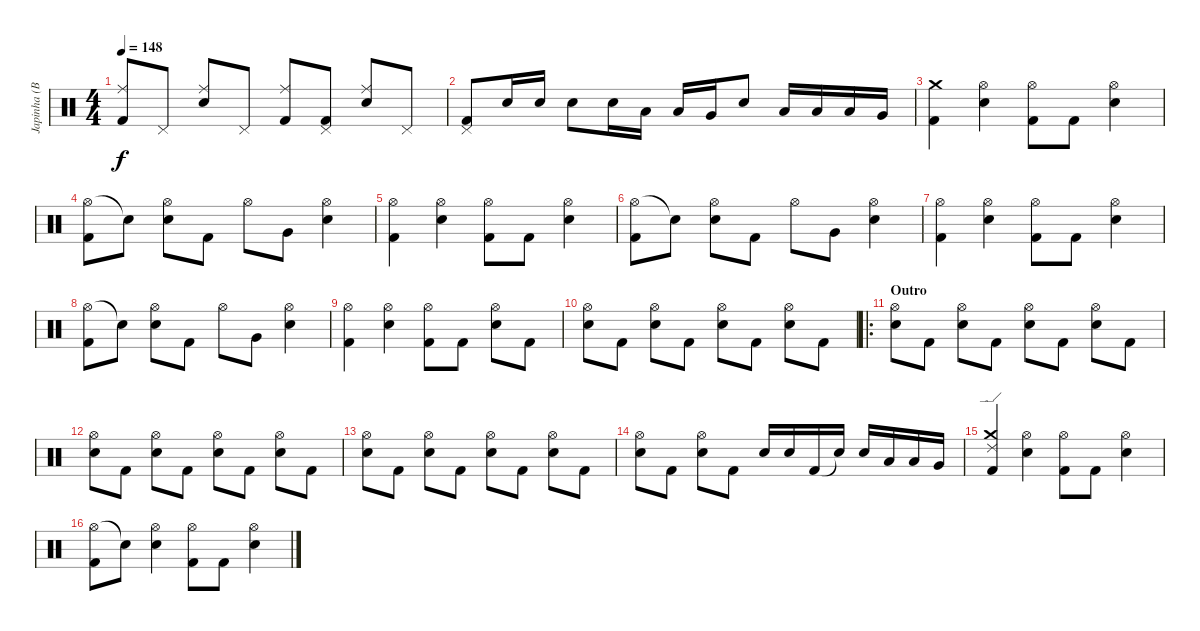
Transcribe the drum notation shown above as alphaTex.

\track ("Japinha (Bateria)" "Japinha (B") {instrument percussion}
\staff {score}
\articulation defaults
\ts (4 4)
\tempo 148
\clef neutral
\ks c
("Ride (middle)" "Kick (hit) 2").8{dy f} "Pedal Hi-Hat (hit)".8 ("Ride (middle)" "Snare (hit) 2").8 "Pedal Hi-Hat (hit)".8 ("Ride (middle)" "Kick (hit) 2").8 ("Pedal Hi-Hat (hit)" "Kick (hit) 2").8 ("Ride (middle)" "Snare (hit) 2").8 "Pedal Hi-Hat (hit)".8 |
("Pedal Hi-Hat (hit)" "Kick (hit) 2").8 "Snare (hit) 2".16 "Snare (hit) 2".16 "Snare (hit) 2".8 "Snare (hit) 2".16 "Low Tom (hit)".16 "Low Tom (hit)".16 "Very Low Tom (hit)".16 "Snare (hit) 2".8 "Low Tom (hit)".16 "Low Tom (hit)".16 "Low Tom (hit)".16 "Very Low Tom (hit)".16 |
("Crash medium (hit)" "Kick (hit) 2").4 ("Hi-Hat (open)" "Snare (hit) 2").4 ("Hi-Hat (open)" "Kick (hit) 2").8 "Kick (hit) 2".8 ("Hi-Hat (open)" "Snare (hit) 2").4 |
("Hi-Hat (open)" "Kick (hit) 2").8 "Snare (hit)"{t}.8 ("Hi-Hat (open)" "Snare (hit) 2").8 "Kick (hit) 2".8 "Hi-Hat (open)".8 "Very Low Tom (hit)".8 ("Hi-Hat (open)" "Snare (hit) 2").4 |
("Hi-Hat (open)" "Kick (hit) 2").4 ("Hi-Hat (open)" "Snare (hit) 2").4 ("Hi-Hat (open)" "Kick (hit) 2").8 "Kick (hit) 2".8 ("Hi-Hat (open)" "Snare (hit) 2").4 |
("Hi-Hat (open)" "Kick (hit) 2").8 "Snare (hit)"{t}.8 ("Hi-Hat (open)" "Snare (hit) 2").8 "Kick (hit) 2".8 "Hi-Hat (open)".8 "Very Low Tom (hit)".8 ("Hi-Hat (open)" "Snare (hit) 2").4 |
("Hi-Hat (open)" "Kick (hit) 2").4 ("Hi-Hat (open)" "Snare (hit) 2").4 ("Hi-Hat (open)" "Kick (hit) 2").8 "Kick (hit) 2".8 ("Hi-Hat (open)" "Snare (hit) 2").4 |
("Hi-Hat (open)" "Kick (hit) 2").8 "Snare (hit)"{t}.8 ("Hi-Hat (open)" "Snare (hit) 2").8 "Kick (hit) 2".8 "Hi-Hat (open)".8 "Very Low Tom (hit)".8 ("Hi-Hat (open)" "Snare (hit) 2").4 |
("Hi-Hat (open)" "Kick (hit) 2").4 ("Hi-Hat (open)" "Snare (hit) 2").4 ("Hi-Hat (open)" "Kick (hit) 2").8 "Kick (hit) 2".8 ("Hi-Hat (open)" "Snare (hit) 2").8 "Kick (hit) 2".8 |
("Hi-Hat (open)" "Snare (hit) 2").8 "Kick (hit) 2".8 ("Hi-Hat (open)" "Snare (hit) 2").8 "Kick (hit) 2".8 ("Hi-Hat (open)" "Snare (hit) 2").8 "Kick (hit) 2".8 ("Hi-Hat (open)" "Snare (hit) 2").8 "Kick (hit) 2".8 |
\ro
\section ("" "Outro")
("Hi-Hat (open)" "Snare (hit) 2").8 "Kick (hit) 2".8 ("Hi-Hat (open)" "Snare (hit) 2").8 "Kick (hit) 2".8 ("Hi-Hat (open)" "Snare (hit) 2").8 "Kick (hit) 2".8 ("Hi-Hat (open)" "Snare (hit) 2").8 "Kick (hit) 2".8 |
("Hi-Hat (open)" "Snare (hit) 2").8 "Kick (hit) 2".8 ("Hi-Hat (open)" "Snare (hit) 2").8 "Kick (hit) 2".8 ("Hi-Hat (open)" "Snare (hit) 2").8 "Kick (hit) 2".8 ("Hi-Hat (open)" "Snare (hit) 2").8 "Kick (hit) 2".8 |
("Hi-Hat (open)" "Snare (hit) 2").8 "Kick (hit) 2".8 ("Hi-Hat (open)" "Snare (hit) 2").8 "Kick (hit) 2".8 ("Hi-Hat (open)" "Snare (hit) 2").8 "Kick (hit) 2".8 ("Hi-Hat (open)" "Snare (hit) 2").8 "Kick (hit) 2".8 |
("Hi-Hat (open)" "Snare (hit) 2").8 "Kick (hit) 2".8 ("Hi-Hat (open)" "Snare (hit) 2").8 "Kick (hit) 2".8 "Snare (hit) 2".16 "Snare (hit) 2".16 "Kick (hit) 2".16 "Snare (hit)"{t}.16 "Snare (hit) 2".16 "Low Tom (hit)".16 "Low Tom (hit)".16 "Very Low Tom (hit)".16 |
("Crash medium (hit)" "Ride (edge) 2" "Kick (hit) 2").4 ("Hi-Hat (open)" "Snare (hit) 2").4 ("Hi-Hat (open)" "Kick (hit) 2").8 "Kick (hit) 2".8 ("Hi-Hat (open)" "Snare (hit) 2").4 |
("Hi-Hat (open)" "Kick (hit) 2").8 "Snare (hit)"{t}.8 ("Hi-Hat (open)" "Snare (hit) 2").4 ("Hi-Hat (open)" "Kick (hit) 2").8 "Kick (hit) 2".8 ("Hi-Hat (open)" "Snare (hit) 2").4
